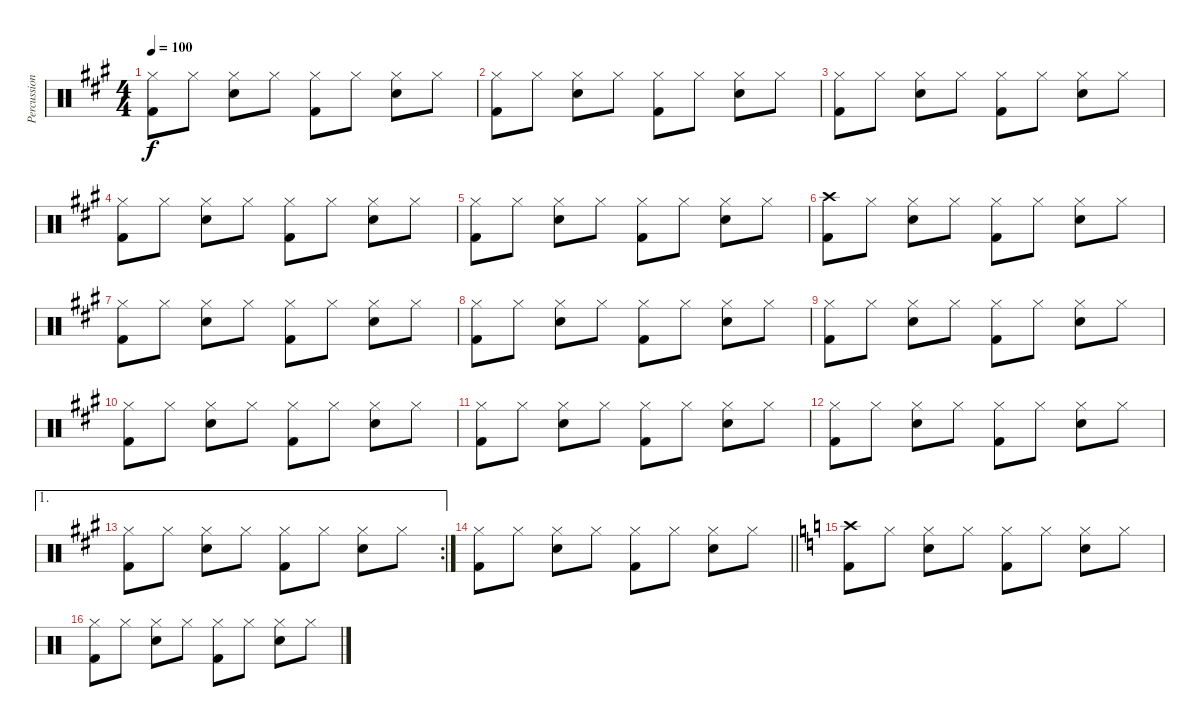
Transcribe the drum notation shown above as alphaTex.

\track ("Percussion" "Percussion") {instrument percussion}
\staff {score}
\articulation defaults
\ts (4 4)
\tempo 100
\clef neutral
\ks a
("Hi-Hat (closed)" "Kick (hit) 2").8{dy f} "Hi-Hat (closed)".8 ("Hi-Hat (closed)" "Snare (hit) 2").8 "Hi-Hat (closed)".8 ("Hi-Hat (closed)" "Kick (hit) 2").8 "Hi-Hat (closed)".8 ("Hi-Hat (closed)" "Snare (hit) 2").8 "Hi-Hat (closed)".8 |
("Hi-Hat (closed)" "Kick (hit) 2").8 "Hi-Hat (closed)".8 ("Hi-Hat (closed)" "Snare (hit) 2").8 "Hi-Hat (closed)".8 ("Hi-Hat (closed)" "Kick (hit) 2").8 "Hi-Hat (closed)".8 ("Hi-Hat (closed)" "Snare (hit) 2").8 "Hi-Hat (closed)".8 |
("Hi-Hat (closed)" "Kick (hit) 2").8 "Hi-Hat (closed)".8 ("Hi-Hat (closed)" "Snare (hit) 2").8 "Hi-Hat (closed)".8 ("Hi-Hat (closed)" "Kick (hit) 2").8 "Hi-Hat (closed)".8 ("Hi-Hat (closed)" "Snare (hit) 2").8 "Hi-Hat (closed)".8 |
("Hi-Hat (closed)" "Kick (hit) 2").8 "Hi-Hat (closed)".8 ("Hi-Hat (closed)" "Snare (hit) 2").8 "Hi-Hat (closed)".8 ("Hi-Hat (closed)" "Kick (hit) 2").8 "Hi-Hat (closed)".8 ("Hi-Hat (closed)" "Snare (hit) 2").8 "Hi-Hat (closed)".8 |
("Hi-Hat (closed)" "Kick (hit) 2").8 "Hi-Hat (closed)".8 ("Hi-Hat (closed)" "Snare (hit) 2").8 "Hi-Hat (closed)".8 ("Hi-Hat (closed)" "Kick (hit) 2").8 "Hi-Hat (closed)".8 ("Hi-Hat (closed)" "Snare (hit) 2").8 "Hi-Hat (closed)".8 |
("Crash high (hit)" "Kick (hit) 2").8 "Hi-Hat (closed)".8 ("Hi-Hat (closed)" "Snare (hit) 2").8 "Hi-Hat (closed)".8 ("Hi-Hat (closed)" "Kick (hit) 2").8 "Hi-Hat (closed)".8 ("Hi-Hat (closed)" "Snare (hit) 2").8 "Hi-Hat (closed)".8 |
("Hi-Hat (closed)" "Kick (hit) 2").8 "Hi-Hat (closed)".8 ("Hi-Hat (closed)" "Snare (hit) 2").8 "Hi-Hat (closed)".8 ("Hi-Hat (closed)" "Kick (hit) 2").8 "Hi-Hat (closed)".8 ("Hi-Hat (closed)" "Snare (hit) 2").8 "Hi-Hat (closed)".8 |
("Hi-Hat (closed)" "Kick (hit) 2").8 "Hi-Hat (closed)".8 ("Hi-Hat (closed)" "Snare (hit) 2").8 "Hi-Hat (closed)".8 ("Hi-Hat (closed)" "Kick (hit) 2").8 "Hi-Hat (closed)".8 ("Hi-Hat (closed)" "Snare (hit) 2").8 "Hi-Hat (closed)".8 |
("Hi-Hat (closed)" "Kick (hit) 2").8 "Hi-Hat (closed)".8 ("Hi-Hat (closed)" "Snare (hit) 2").8 "Hi-Hat (closed)".8 ("Hi-Hat (closed)" "Kick (hit) 2").8 "Hi-Hat (closed)".8 ("Hi-Hat (closed)" "Snare (hit) 2").8 "Hi-Hat (closed)".8 |
("Hi-Hat (closed)" "Kick (hit) 2").8 "Hi-Hat (closed)".8 ("Hi-Hat (closed)" "Snare (hit) 2").8 "Hi-Hat (closed)".8 ("Hi-Hat (closed)" "Kick (hit) 2").8 "Hi-Hat (closed)".8 ("Hi-Hat (closed)" "Snare (hit) 2").8 "Hi-Hat (closed)".8 |
("Hi-Hat (closed)" "Kick (hit) 2").8 "Hi-Hat (closed)".8 ("Hi-Hat (closed)" "Snare (hit) 2").8 "Hi-Hat (closed)".8 ("Hi-Hat (closed)" "Kick (hit) 2").8 "Hi-Hat (closed)".8 ("Hi-Hat (closed)" "Snare (hit) 2").8 "Hi-Hat (closed)".8 |
("Hi-Hat (closed)" "Kick (hit) 2").8 "Hi-Hat (closed)".8 ("Hi-Hat (closed)" "Snare (hit) 2").8 "Hi-Hat (closed)".8 ("Hi-Hat (closed)" "Kick (hit) 2").8 "Hi-Hat (closed)".8 ("Hi-Hat (closed)" "Snare (hit) 2").8 "Hi-Hat (closed)".8 |
\ae 1
\rc 2
("Hi-Hat (closed)" "Kick (hit) 2").8 "Hi-Hat (closed)".8 ("Hi-Hat (closed)" "Snare (hit) 2").8 "Hi-Hat (closed)".8 ("Hi-Hat (closed)" "Kick (hit) 2").8 "Hi-Hat (closed)".8 ("Hi-Hat (closed)" "Snare (hit) 2").8 "Hi-Hat (closed)".8 |
\barLineRight lightlight
("Hi-Hat (closed)" "Kick (hit) 2").8 "Hi-Hat (closed)".8 ("Hi-Hat (closed)" "Snare (hit) 2").8 "Hi-Hat (closed)".8 ("Hi-Hat (closed)" "Kick (hit) 2").8 "Hi-Hat (closed)".8 ("Hi-Hat (closed)" "Snare (hit) 2").8 "Hi-Hat (closed)".8 |
\ks c
("Crash high (hit)" "Kick (hit) 2").8 "Hi-Hat (closed)".8 ("Hi-Hat (closed)" "Snare (hit) 2").8 "Hi-Hat (closed)".8 ("Hi-Hat (closed)" "Kick (hit) 2").8 "Hi-Hat (closed)".8 ("Hi-Hat (closed)" "Snare (hit) 2").8 "Hi-Hat (closed)".8 |
("Hi-Hat (closed)" "Kick (hit) 2").8 "Hi-Hat (closed)".8 ("Hi-Hat (closed)" "Snare (hit) 2").8 "Hi-Hat (closed)".8 ("Hi-Hat (closed)" "Kick (hit) 2").8 "Hi-Hat (closed)".8 ("Hi-Hat (closed)" "Snare (hit) 2").8 "Hi-Hat (closed)".8
